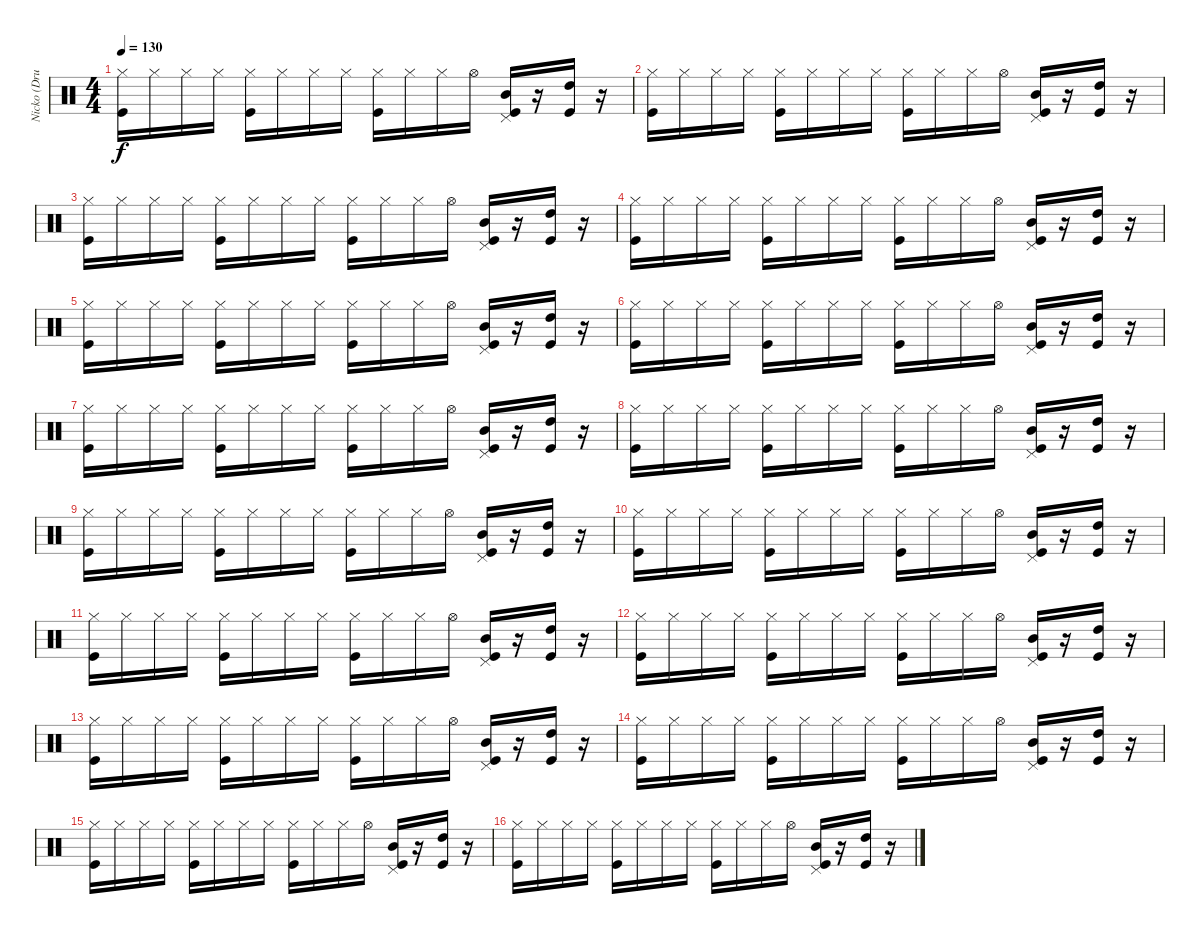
\track ("Nicko (Drums)" "Nicko (Dru") {instrument percussion}
\staff {score}
\articulation defaults
\ts (4 4)
\tempo 130
\clef neutral
\ks c
("Hi-Hat (closed)" "Kick (hit)").16{dy f} "Hi-Hat (closed)".16 "Hi-Hat (closed)".16 "Hi-Hat (closed)".16 ("Hi-Hat (closed)" "Kick (hit)").16 "Hi-Hat (closed)".16 "Hi-Hat (closed)".16 "Hi-Hat (closed)".16 ("Hi-Hat (closed)" "Kick (hit)").16 "Hi-Hat (closed)".16 "Hi-Hat (closed)".16 "Hi-Hat (open)".16 ("Pedal Hi-Hat (hit)" "Mid Tom (hit)" "Kick (hit)").16 r.16 ("High Tom (hit)" "Kick (hit)").16 r.16 |
("Hi-Hat (closed)" "Kick (hit)").16 "Hi-Hat (closed)".16 "Hi-Hat (closed)".16 "Hi-Hat (closed)".16 ("Hi-Hat (closed)" "Kick (hit)").16 "Hi-Hat (closed)".16 "Hi-Hat (closed)".16 "Hi-Hat (closed)".16 ("Hi-Hat (closed)" "Kick (hit)").16 "Hi-Hat (closed)".16 "Hi-Hat (closed)".16 "Hi-Hat (open)".16 ("Pedal Hi-Hat (hit)" "Mid Tom (hit)" "Kick (hit)").16 r.16 ("High Tom (hit)" "Kick (hit)").16 r.16 |
("Hi-Hat (closed)" "Kick (hit)").16 "Hi-Hat (closed)".16 "Hi-Hat (closed)".16 "Hi-Hat (closed)".16 ("Hi-Hat (closed)" "Kick (hit)").16 "Hi-Hat (closed)".16 "Hi-Hat (closed)".16 "Hi-Hat (closed)".16 ("Hi-Hat (closed)" "Kick (hit)").16 "Hi-Hat (closed)".16 "Hi-Hat (closed)".16 "Hi-Hat (open)".16 ("Pedal Hi-Hat (hit)" "Mid Tom (hit)" "Kick (hit)").16 r.16 ("High Tom (hit)" "Kick (hit)").16 r.16 |
("Hi-Hat (closed)" "Kick (hit)").16 "Hi-Hat (closed)".16 "Hi-Hat (closed)".16 "Hi-Hat (closed)".16 ("Hi-Hat (closed)" "Kick (hit)").16 "Hi-Hat (closed)".16 "Hi-Hat (closed)".16 "Hi-Hat (closed)".16 ("Hi-Hat (closed)" "Kick (hit)").16 "Hi-Hat (closed)".16 "Hi-Hat (closed)".16 "Hi-Hat (open)".16 ("Pedal Hi-Hat (hit)" "Mid Tom (hit)" "Kick (hit)").16 r.16 ("High Tom (hit)" "Kick (hit)").16 r.16 |
("Hi-Hat (closed)" "Kick (hit)").16 "Hi-Hat (closed)".16 "Hi-Hat (closed)".16 "Hi-Hat (closed)".16 ("Hi-Hat (closed)" "Kick (hit)").16 "Hi-Hat (closed)".16 "Hi-Hat (closed)".16 "Hi-Hat (closed)".16 ("Hi-Hat (closed)" "Kick (hit)").16 "Hi-Hat (closed)".16 "Hi-Hat (closed)".16 "Hi-Hat (open)".16 ("Pedal Hi-Hat (hit)" "Mid Tom (hit)" "Kick (hit)").16 r.16 ("High Tom (hit)" "Kick (hit)").16 r.16 |
("Hi-Hat (closed)" "Kick (hit)").16 "Hi-Hat (closed)".16 "Hi-Hat (closed)".16 "Hi-Hat (closed)".16 ("Hi-Hat (closed)" "Kick (hit)").16 "Hi-Hat (closed)".16 "Hi-Hat (closed)".16 "Hi-Hat (closed)".16 ("Hi-Hat (closed)" "Kick (hit)").16 "Hi-Hat (closed)".16 "Hi-Hat (closed)".16 "Hi-Hat (open)".16 ("Pedal Hi-Hat (hit)" "Mid Tom (hit)" "Kick (hit)").16 r.16 ("High Tom (hit)" "Kick (hit)").16 r.16 |
("Hi-Hat (closed)" "Kick (hit)").16 "Hi-Hat (closed)".16 "Hi-Hat (closed)".16 "Hi-Hat (closed)".16 ("Hi-Hat (closed)" "Kick (hit)").16 "Hi-Hat (closed)".16 "Hi-Hat (closed)".16 "Hi-Hat (closed)".16 ("Hi-Hat (closed)" "Kick (hit)").16 "Hi-Hat (closed)".16 "Hi-Hat (closed)".16 "Hi-Hat (open)".16 ("Pedal Hi-Hat (hit)" "Mid Tom (hit)" "Kick (hit)").16 r.16 ("High Tom (hit)" "Kick (hit)").16 r.16 |
("Hi-Hat (closed)" "Kick (hit)").16 "Hi-Hat (closed)".16 "Hi-Hat (closed)".16 "Hi-Hat (closed)".16 ("Hi-Hat (closed)" "Kick (hit)").16 "Hi-Hat (closed)".16 "Hi-Hat (closed)".16 "Hi-Hat (closed)".16 ("Hi-Hat (closed)" "Kick (hit)").16 "Hi-Hat (closed)".16 "Hi-Hat (closed)".16 "Hi-Hat (open)".16 ("Pedal Hi-Hat (hit)" "Mid Tom (hit)" "Kick (hit)").16 r.16 ("High Tom (hit)" "Kick (hit)").16 r.16 |
("Hi-Hat (closed)" "Kick (hit)").16 "Hi-Hat (closed)".16 "Hi-Hat (closed)".16 "Hi-Hat (closed)".16 ("Hi-Hat (closed)" "Kick (hit)").16 "Hi-Hat (closed)".16 "Hi-Hat (closed)".16 "Hi-Hat (closed)".16 ("Hi-Hat (closed)" "Kick (hit)").16 "Hi-Hat (closed)".16 "Hi-Hat (closed)".16 "Hi-Hat (open)".16 ("Pedal Hi-Hat (hit)" "Mid Tom (hit)" "Kick (hit)").16 r.16 ("High Tom (hit)" "Kick (hit)").16 r.16 |
("Hi-Hat (closed)" "Kick (hit)").16 "Hi-Hat (closed)".16 "Hi-Hat (closed)".16 "Hi-Hat (closed)".16 ("Hi-Hat (closed)" "Kick (hit)").16 "Hi-Hat (closed)".16 "Hi-Hat (closed)".16 "Hi-Hat (closed)".16 ("Hi-Hat (closed)" "Kick (hit)").16 "Hi-Hat (closed)".16 "Hi-Hat (closed)".16 "Hi-Hat (open)".16 ("Pedal Hi-Hat (hit)" "Mid Tom (hit)" "Kick (hit)").16 r.16 ("High Tom (hit)" "Kick (hit)").16 r.16 |
("Hi-Hat (closed)" "Kick (hit)").16 "Hi-Hat (closed)".16 "Hi-Hat (closed)".16 "Hi-Hat (closed)".16 ("Hi-Hat (closed)" "Kick (hit)").16 "Hi-Hat (closed)".16 "Hi-Hat (closed)".16 "Hi-Hat (closed)".16 ("Hi-Hat (closed)" "Kick (hit)").16 "Hi-Hat (closed)".16 "Hi-Hat (closed)".16 "Hi-Hat (open)".16 ("Pedal Hi-Hat (hit)" "Mid Tom (hit)" "Kick (hit)").16 r.16 ("High Tom (hit)" "Kick (hit)").16 r.16 |
("Hi-Hat (closed)" "Kick (hit)").16 "Hi-Hat (closed)".16 "Hi-Hat (closed)".16 "Hi-Hat (closed)".16 ("Hi-Hat (closed)" "Kick (hit)").16 "Hi-Hat (closed)".16 "Hi-Hat (closed)".16 "Hi-Hat (closed)".16 ("Hi-Hat (closed)" "Kick (hit)").16 "Hi-Hat (closed)".16 "Hi-Hat (closed)".16 "Hi-Hat (open)".16 ("Pedal Hi-Hat (hit)" "Mid Tom (hit)" "Kick (hit)").16 r.16 ("High Tom (hit)" "Kick (hit)").16 r.16 |
("Hi-Hat (closed)" "Kick (hit)").16 "Hi-Hat (closed)".16 "Hi-Hat (closed)".16 "Hi-Hat (closed)".16 ("Hi-Hat (closed)" "Kick (hit)").16 "Hi-Hat (closed)".16 "Hi-Hat (closed)".16 "Hi-Hat (closed)".16 ("Hi-Hat (closed)" "Kick (hit)").16 "Hi-Hat (closed)".16 "Hi-Hat (closed)".16 "Hi-Hat (open)".16 ("Pedal Hi-Hat (hit)" "Mid Tom (hit)" "Kick (hit)").16 r.16 ("High Tom (hit)" "Kick (hit)").16 r.16 |
("Hi-Hat (closed)" "Kick (hit)").16 "Hi-Hat (closed)".16 "Hi-Hat (closed)".16 "Hi-Hat (closed)".16 ("Hi-Hat (closed)" "Kick (hit)").16 "Hi-Hat (closed)".16 "Hi-Hat (closed)".16 "Hi-Hat (closed)".16 ("Hi-Hat (closed)" "Kick (hit)").16 "Hi-Hat (closed)".16 "Hi-Hat (closed)".16 "Hi-Hat (open)".16 ("Pedal Hi-Hat (hit)" "Mid Tom (hit)" "Kick (hit)").16 r.16 ("High Tom (hit)" "Kick (hit)").16 r.16 |
("Hi-Hat (closed)" "Kick (hit)").16 "Hi-Hat (closed)".16 "Hi-Hat (closed)".16 "Hi-Hat (closed)".16 ("Hi-Hat (closed)" "Kick (hit)").16 "Hi-Hat (closed)".16 "Hi-Hat (closed)".16 "Hi-Hat (closed)".16 ("Hi-Hat (closed)" "Kick (hit)").16 "Hi-Hat (closed)".16 "Hi-Hat (closed)".16 "Hi-Hat (open)".16 ("Pedal Hi-Hat (hit)" "Mid Tom (hit)" "Kick (hit)").16 r.16 ("High Tom (hit)" "Kick (hit)").16 r.16 |
("Hi-Hat (closed)" "Kick (hit)").16 "Hi-Hat (closed)".16 "Hi-Hat (closed)".16 "Hi-Hat (closed)".16 ("Hi-Hat (closed)" "Kick (hit)").16 "Hi-Hat (closed)".16 "Hi-Hat (closed)".16 "Hi-Hat (closed)".16 ("Hi-Hat (closed)" "Kick (hit)").16 "Hi-Hat (closed)".16 "Hi-Hat (closed)".16 "Hi-Hat (open)".16 ("Pedal Hi-Hat (hit)" "Mid Tom (hit)" "Kick (hit)").16 r.16 ("High Tom (hit)" "Kick (hit)").16 r.16
